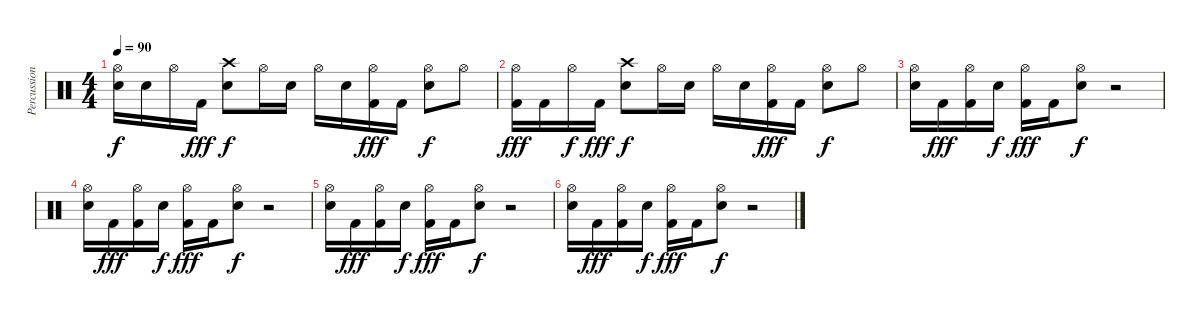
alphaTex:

\track ("Percussions" "Percussion") {instrument percussion}
\staff {score}
\articulation defaults
\ts (4 4)
\tempo 90
\clef neutral
\ks c
("Hi-Hat (open)" "Snare (hit) 2").16{dy f} "Snare (hit) 2".16 "Hi-Hat (open)".16 "Kick (hit) 2".16{dy fff} ("Crash high (hit)" "Snare (hit) 2").8{dy f} "Hi-Hat (open)".16 "Snare (hit) 2".16 "Hi-Hat (open)".16 "Snare (hit) 2".16 ("Hi-Hat (open)" "Kick (hit) 2").16{dy fff} "Kick (hit) 2".16 ("Hi-Hat (open)" "Snare (hit) 2").8{dy f} "Hi-Hat (open)".8 |
("Hi-Hat (open)" "Kick (hit) 2").16{dy fff} "Kick (hit) 2".16 "Hi-Hat (open)".16{dy f} "Kick (hit) 2".16{dy fff} ("Crash high (hit)" "Snare (hit) 2").8{dy f} "Hi-Hat (open)".16 "Snare (hit) 2".16 "Hi-Hat (open)".16 "Snare (hit) 2".16 ("Hi-Hat (open)" "Kick (hit) 2").16{dy fff} "Kick (hit) 2".16 ("Hi-Hat (open)" "Snare (hit) 2").8{dy f} "Hi-Hat (open)".8 |
("Hi-Hat (open)" "Snare (hit) 2").16 "Kick (hit) 2".16{dy fff} ("Hi-Hat (open)" "Kick (hit) 2").16 "Snare (hit) 2".16{dy f} ("Hi-Hat (open)" "Kick (hit) 2").16{dy fff} "Kick (hit) 2".16 ("Hi-Hat (open)" "Snare (hit) 2").8{dy f} r.2 |
("Hi-Hat (open)" "Snare (hit) 2").16 "Kick (hit) 2".16{dy fff} ("Hi-Hat (open)" "Kick (hit) 2").16 "Snare (hit) 2".16{dy f} ("Hi-Hat (open)" "Kick (hit) 2").16{dy fff} "Kick (hit) 2".16 ("Hi-Hat (open)" "Snare (hit) 2").8{dy f} r.2 |
("Hi-Hat (open)" "Snare (hit) 2").16 "Kick (hit) 2".16{dy fff} ("Hi-Hat (open)" "Kick (hit) 2").16 "Snare (hit) 2".16{dy f} ("Hi-Hat (open)" "Kick (hit) 2").16{dy fff} "Kick (hit) 2".16 ("Hi-Hat (open)" "Snare (hit) 2").8{dy f} r.2 |
("Hi-Hat (open)" "Snare (hit) 2").16 "Kick (hit) 2".16{dy fff} ("Hi-Hat (open)" "Kick (hit) 2").16 "Snare (hit) 2".16{dy f} ("Hi-Hat (open)" "Kick (hit) 2").16{dy fff} "Kick (hit) 2".16 ("Hi-Hat (open)" "Snare (hit) 2").8{dy f} r.2
